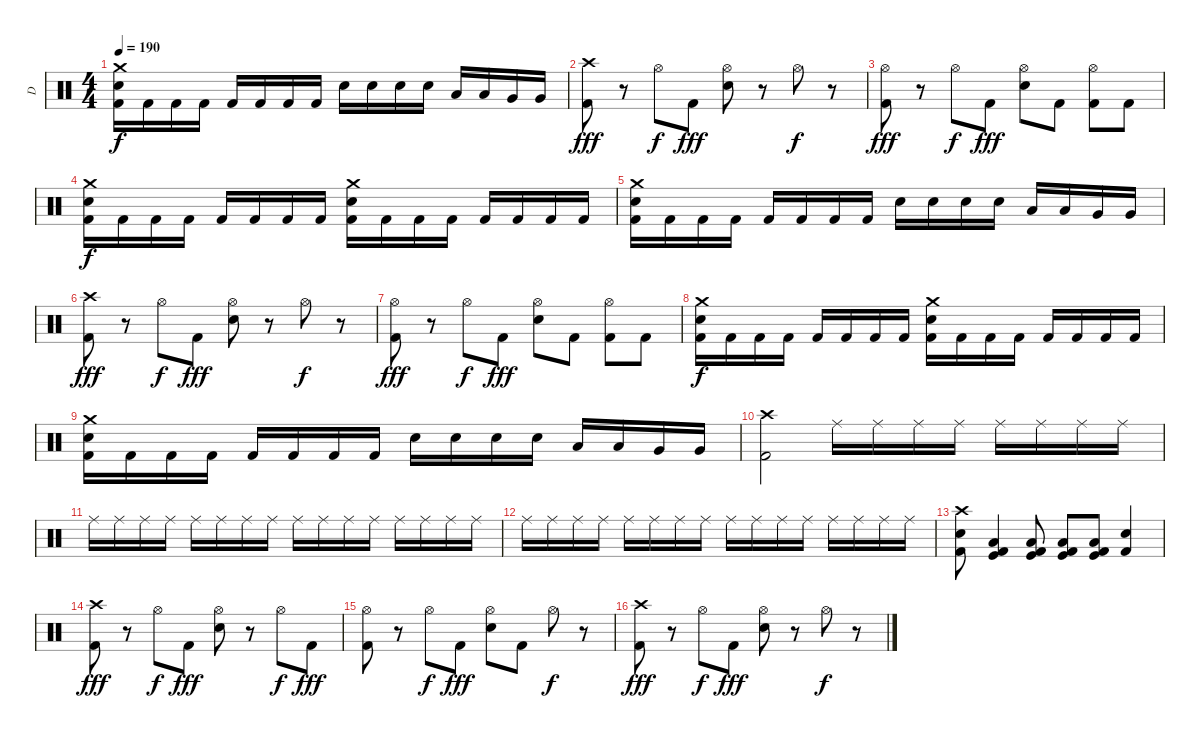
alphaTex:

\track ("D" "D") {instrument percussion}
\staff {score}
\articulation defaults
\ts (4 4)
\tempo 190
\clef neutral
\ks c
("Crash medium (hit)" "Electric Snare (hit)" "Kick (hit) 2").16{dy f} "Kick (hit) 2".16 "Kick (hit) 2".16 "Kick (hit) 2".16 "Kick (hit) 2".16 "Kick (hit) 2".16 "Kick (hit) 2".16 "Kick (hit) 2".16 "Electric Snare (hit)".16 "Electric Snare (hit)".16 "Electric Snare (hit)".16 "Electric Snare (hit)".16 "Low Tom (hit)".16 "Low Tom (hit)".16 "Very Low Tom (hit)".16 "Very Low Tom (hit)".16 |
("Crash high (hit)" "Kick (hit) 2").8{dy fff} r.8 "Hi-Hat (open)".8{dy f} "Kick (hit) 2".8{dy fff} ("Hi-Hat (open)" "Electric Snare (hit)").8 r.8 "Hi-Hat (open)".8{dy f} r.8 |
("Hi-Hat (open)" "Kick (hit) 2").8{dy fff} r.8 "Hi-Hat (open)".8{dy f} "Kick (hit) 2".8{dy fff} ("Hi-Hat (open)" "Electric Snare (hit)").8 "Kick (hit) 2".8 ("Hi-Hat (open)" "Kick (hit) 2").8 "Kick (hit) 2".8 |
("Crash medium (hit)" "Electric Snare (hit)" "Kick (hit) 2").16{dy f} "Kick (hit) 2".16 "Kick (hit) 2".16 "Kick (hit) 2".16 "Kick (hit) 2".16 "Kick (hit) 2".16 "Kick (hit) 2".16 "Kick (hit) 2".16 ("Crash medium (hit)" "Electric Snare (hit)" "Kick (hit) 2").16 "Kick (hit) 2".16 "Kick (hit) 2".16 "Kick (hit) 2".16 "Kick (hit) 2".16 "Kick (hit) 2".16 "Kick (hit) 2".16 "Kick (hit) 2".16 |
("Crash medium (hit)" "Electric Snare (hit)" "Kick (hit) 2").16 "Kick (hit) 2".16 "Kick (hit) 2".16 "Kick (hit) 2".16 "Kick (hit) 2".16 "Kick (hit) 2".16 "Kick (hit) 2".16 "Kick (hit) 2".16 "Electric Snare (hit)".16 "Electric Snare (hit)".16 "Electric Snare (hit)".16 "Electric Snare (hit)".16 "Low Tom (hit)".16 "Low Tom (hit)".16 "Very Low Tom (hit)".16 "Very Low Tom (hit)".16 |
("Crash high (hit)" "Kick (hit) 2").8{dy fff} r.8 "Hi-Hat (open)".8{dy f} "Kick (hit) 2".8{dy fff} ("Hi-Hat (open)" "Electric Snare (hit)").8 r.8 "Hi-Hat (open)".8{dy f} r.8 |
("Hi-Hat (open)" "Kick (hit) 2").8{dy fff} r.8 "Hi-Hat (open)".8{dy f} "Kick (hit) 2".8{dy fff} ("Hi-Hat (open)" "Electric Snare (hit)").8 "Kick (hit) 2".8 ("Hi-Hat (open)" "Kick (hit) 2").8 "Kick (hit) 2".8 |
("Crash medium (hit)" "Electric Snare (hit)" "Kick (hit) 2").16{dy f} "Kick (hit) 2".16 "Kick (hit) 2".16 "Kick (hit) 2".16 "Kick (hit) 2".16 "Kick (hit) 2".16 "Kick (hit) 2".16 "Kick (hit) 2".16 ("Crash medium (hit)" "Electric Snare (hit)" "Kick (hit) 2").16 "Kick (hit) 2".16 "Kick (hit) 2".16 "Kick (hit) 2".16 "Kick (hit) 2".16 "Kick (hit) 2".16 "Kick (hit) 2".16 "Kick (hit) 2".16 |
("Crash medium (hit)" "Electric Snare (hit)" "Kick (hit) 2").16 "Kick (hit) 2".16 "Kick (hit) 2".16 "Kick (hit) 2".16 "Kick (hit) 2".16 "Kick (hit) 2".16 "Kick (hit) 2".16 "Kick (hit) 2".16 "Electric Snare (hit)".16 "Electric Snare (hit)".16 "Electric Snare (hit)".16 "Electric Snare (hit)".16 "Low Tom (hit)".16 "Low Tom (hit)".16 "Very Low Tom (hit)".16 "Very Low Tom (hit)".16 |
("Crash high (hit)" "Kick (hit) 2").2 "Ride (middle)".16 "Ride (middle)".16 "Ride (middle)".16 "Ride (middle)".16 "Ride (middle)".16 "Ride (middle)".16 "Ride (middle)".16 "Ride (middle)".16 |
"Ride (middle)".16 "Ride (middle)".16 "Ride (middle)".16 "Ride (middle)".16 "Ride (middle)".16 "Ride (middle)".16 "Ride (middle)".16 "Ride (middle)".16 "Ride (middle)".16 "Ride (middle)".16 "Ride (middle)".16 "Ride (middle)".16 "Ride (middle)".16 "Ride (middle)".16 "Ride (middle)".16 "Ride (middle)".16 |
"Ride (middle)".16 "Ride (middle)".16 "Ride (middle)".16 "Ride (middle)".16 "Ride (middle)".16 "Ride (middle)".16 "Ride (middle)".16 "Ride (middle)".16 "Ride (middle)".16 "Ride (middle)".16 "Ride (middle)".16 "Ride (middle)".16 "Ride (middle)".16 "Ride (middle)".16 "Ride (middle)".16 "Ride (middle)".16 |
("Crash high (hit)" "Electric Snare (hit)" "Kick (hit) 2").8 ("Low Floor Tom (hit)" "Kick (hit)" "Kick (hit) 2").4 ("Low Floor Tom (hit)" "Kick (hit)" "Kick (hit) 2").8 ("Low Floor Tom (hit)" "Kick (hit)" "Kick (hit) 2").8 ("Low Floor Tom (hit)" "Kick (hit)" "Kick (hit) 2").8 ("Electric Snare (hit)" "Kick (hit) 2").4 |
("Crash high (hit)" "Kick (hit) 2").8{dy fff} r.8 "Hi-Hat (open)".8{dy f} "Kick (hit) 2".8{dy fff} ("Hi-Hat (open)" "Electric Snare (hit)").8 r.8 "Hi-Hat (open)".8{dy f} "Kick (hit) 2".8{dy fff} |
("Hi-Hat (open)" "Kick (hit) 2").8 r.8 "Hi-Hat (open)".8{dy f} "Kick (hit) 2".8{dy fff} ("Hi-Hat (open)" "Electric Snare (hit)").8 "Kick (hit) 2".8 "Hi-Hat (open)".8{dy f} r.8 |
("Crash high (hit)" "Kick (hit) 2").8{dy fff} r.8 "Hi-Hat (open)".8{dy f} "Kick (hit) 2".8{dy fff} ("Hi-Hat (open)" "Electric Snare (hit)").8 r.8 "Hi-Hat (open)".8{dy f} r.8
